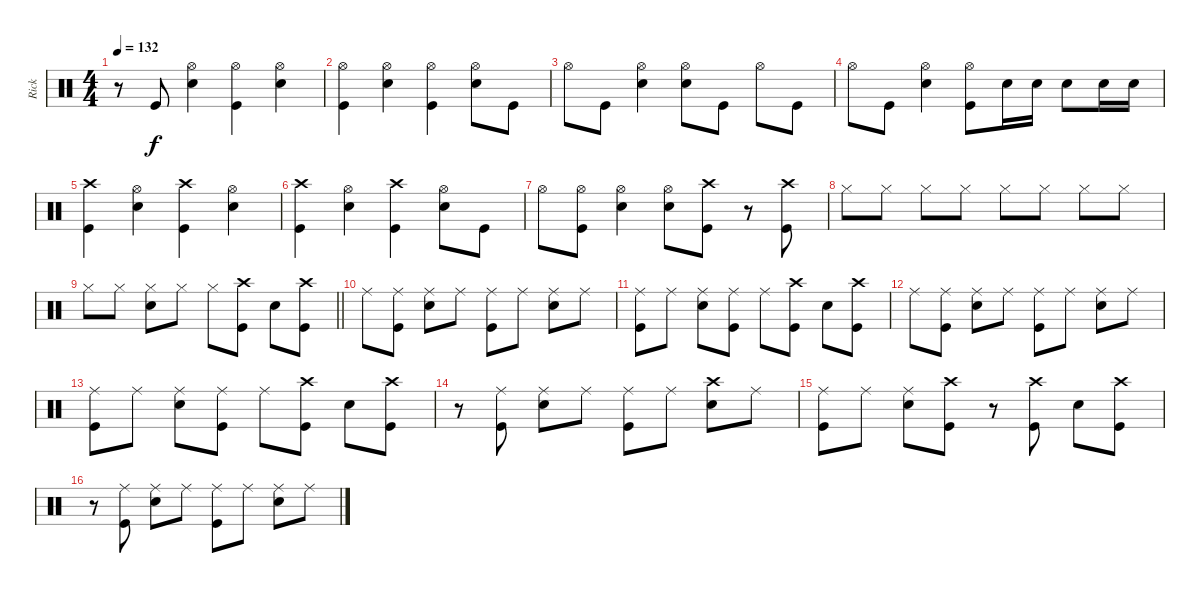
\track ("Rick" "Rick") {instrument percussion}
\staff {score}
\articulation defaults
\ts (4 4)
\tempo 132
\clef neutral
\ks aminor
r.8{dy f} "Kick (hit)".8 ("Hi-Hat (open)" "Snare (hit) 2").4 ("Hi-Hat (open)" "Kick (hit)").4 ("Hi-Hat (open)" "Snare (hit) 2").4 |
("Hi-Hat (open)" "Kick (hit)").4 ("Hi-Hat (open)" "Snare (hit) 2").4 ("Hi-Hat (open)" "Kick (hit)").4 ("Hi-Hat (open)" "Snare (hit) 2").8 "Kick (hit)".8 |
"Hi-Hat (open)".8 "Kick (hit)".8 ("Hi-Hat (open)" "Snare (hit) 2").4 ("Hi-Hat (open)" "Snare (hit) 2").8 "Kick (hit)".8 "Hi-Hat (open)".8 "Kick (hit)".8 |
"Hi-Hat (open)".8 "Kick (hit)".8 ("Hi-Hat (open)" "Snare (hit) 2").4 ("Hi-Hat (open)" "Kick (hit)").8 "Snare (hit) 2".16 "Snare (hit) 2".16 "Snare (hit) 2".8 "Snare (hit) 2".16 "Snare (hit) 2".16 |
("Crash high (hit)" "Kick (hit)").4 ("Hi-Hat (open)" "Snare (hit) 2").4 ("Crash high (hit)" "Kick (hit)").4 ("Hi-Hat (open)" "Snare (hit) 2").4 |
("Crash high (hit)" "Kick (hit)").4 ("Hi-Hat (open)" "Snare (hit) 2").4 ("Crash high (hit)" "Kick (hit)").4 ("Hi-Hat (open)" "Snare (hit) 2").8 "Kick (hit)".8 |
"Hi-Hat (open)".8 ("Hi-Hat (open)" "Kick (hit)").8 ("Hi-Hat (open)" "Snare (hit) 2").4 ("Hi-Hat (open)" "Snare (hit) 2").8 ("Crash high (hit)" "Kick (hit)").8 r.8 ("Crash high (hit)" "Kick (hit)").8 |
"Hi-Hat (closed)".8 "Hi-Hat (closed)".8 "Hi-Hat (closed)".8 "Hi-Hat (closed)".8 "Hi-Hat (closed)".8 "Hi-Hat (closed)".8 "Hi-Hat (closed)".8 "Hi-Hat (closed)".8 |
\barLineRight lightlight "Hi-Hat (closed)".8 "Hi-Hat (closed)".8
("Hi-Hat (closed)" "Snare (hit) 2").8 "Hi-Hat (closed)".8 "Hi-Hat (closed)".8 ("Crash high (hit)" "Kick (hit)").8 "Snare (hit) 2".8 ("Crash high (hit)" "Kick (hit)").8 |
"Ride (middle)".8 ("Ride (middle)" "Kick (hit)").8 ("Ride (middle)" "Snare (hit) 2").8 "Ride (middle)".8 ("Ride (middle)" "Kick (hit)").8 "Ride (middle)".8 ("Ride (middle)" "Snare (hit) 2").8 "Ride (middle)".8 |
("Ride (middle)" "Kick (hit)").8 "Ride (middle)".8 ("Ride (middle)" "Snare (hit) 2").8 ("Ride (middle)" "Kick (hit)").8 "Ride (middle)".8 ("Crash high (hit)" "Kick (hit)").8 "Snare (hit) 2".8 ("Crash high (hit)" "Kick (hit)").8 |
"Ride (middle)".8 ("Ride (middle)" "Kick (hit)").8 ("Ride (middle)" "Snare (hit) 2").8 "Ride (middle)".8 ("Ride (middle)" "Kick (hit)").8 "Ride (middle)".8 ("Ride (middle)" "Snare (hit) 2").8 "Ride (middle)".8 |
("Ride (middle)" "Kick (hit)").8 "Ride (middle)".8 ("Ride (middle)" "Snare (hit) 2").8 ("Ride (middle)" "Kick (hit)").8 "Ride (middle)".8 ("Crash high (hit)" "Kick (hit)").8 "Snare (hit) 2".8 ("Crash high (hit)" "Kick (hit)").8 |
r.8 ("Ride (middle)" "Kick (hit)").8 ("Ride (middle)" "Snare (hit) 2").8 "Ride (middle)".8 ("Ride (middle)" "Kick (hit)").8 "Ride (middle)".8 ("Crash high (hit)" "Snare (hit) 2").8 "Ride (middle)".8 |
("Ride (middle)" "Kick (hit)").8 "Ride (middle)".8 ("Ride (middle)" "Snare (hit) 2").8 ("Crash high (hit)" "Kick (hit)").8 r.8 ("Crash high (hit)" "Kick (hit)").8 "Snare (hit) 2".8 ("Crash high (hit)" "Kick (hit)").8 |
r.8 ("Ride (middle)" "Kick (hit)").8 ("Ride (middle)" "Snare (hit) 2").8 "Ride (middle)".8 ("Ride (middle)" "Kick (hit)").8 "Ride (middle)".8 ("Ride (middle)" "Snare (hit) 2").8 "Ride (middle)".8
